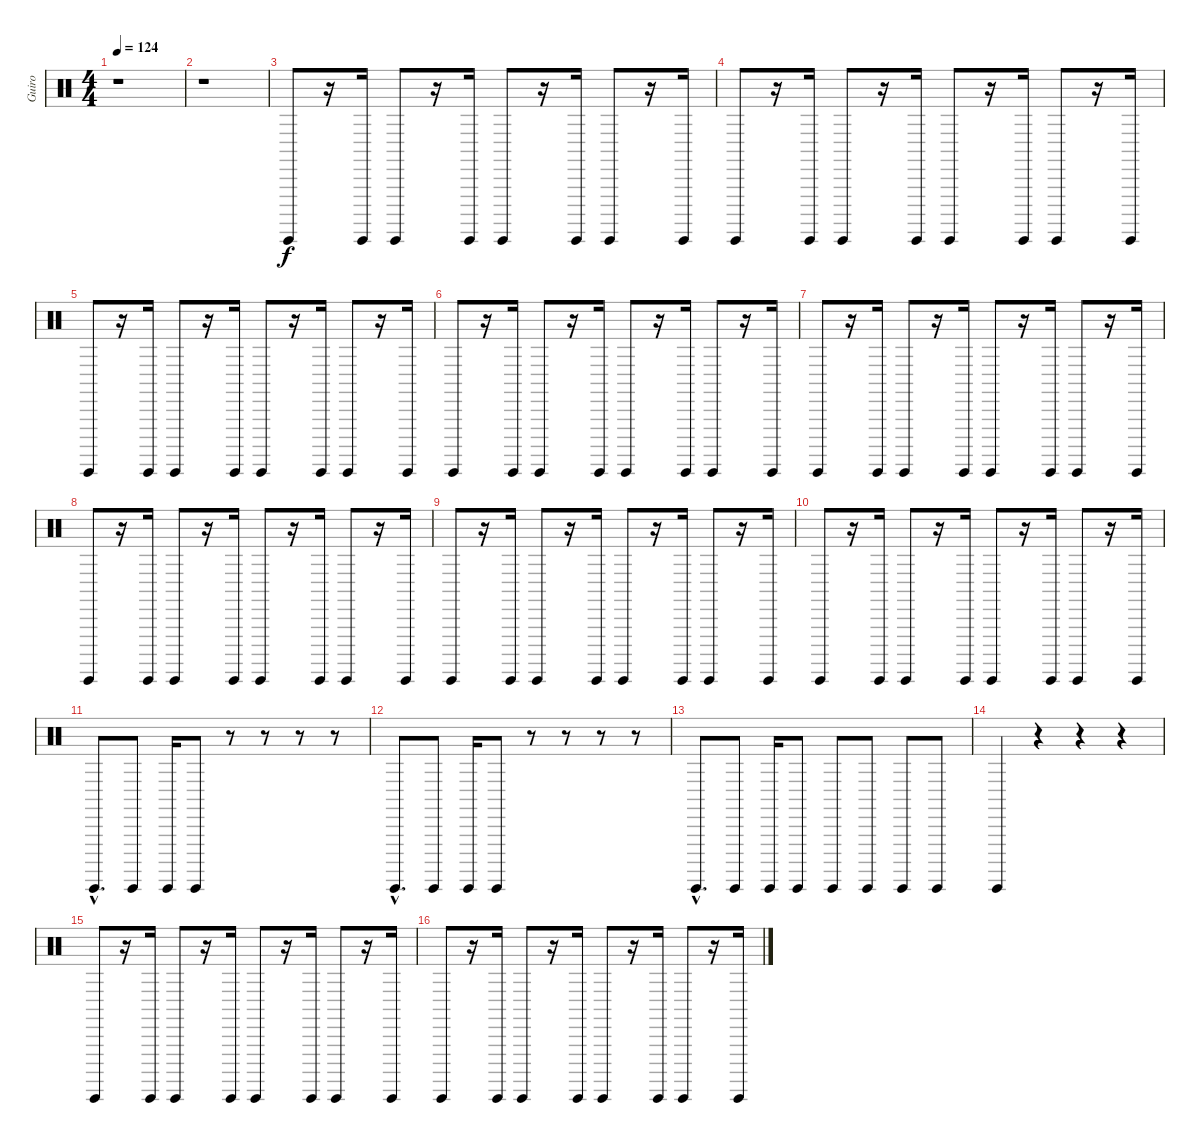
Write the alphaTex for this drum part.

\track ("Guiro" "Guiro") {instrument percussion}
\staff {score}
\articulation defaults
\ts (4 4)
\tempo 124
\clef neutral
\ks c
r.1{dy f} |
r.1 |
"Guiro (hit)".8 r.16 "Guiro (hit)".16 "Guiro (hit)".8 r.16 "Guiro (hit)".16 "Guiro (hit)".8 r.16 "Guiro (hit)".16 "Guiro (hit)".8 r.16 "Guiro (hit)".16 |
"Guiro (hit)".8 r.16 "Guiro (hit)".16 "Guiro (hit)".8 r.16 "Guiro (hit)".16 "Guiro (hit)".8 r.16 "Guiro (hit)".16 "Guiro (hit)".8 r.16 "Guiro (hit)".16 |
"Guiro (hit)".8 r.16 "Guiro (hit)".16 "Guiro (hit)".8 r.16 "Guiro (hit)".16 "Guiro (hit)".8 r.16 "Guiro (hit)".16 "Guiro (hit)".8 r.16 "Guiro (hit)".16 |
"Guiro (hit)".8 r.16 "Guiro (hit)".16 "Guiro (hit)".8 r.16 "Guiro (hit)".16 "Guiro (hit)".8 r.16 "Guiro (hit)".16 "Guiro (hit)".8 r.16 "Guiro (hit)".16 |
"Guiro (hit)".8 r.16 "Guiro (hit)".16 "Guiro (hit)".8 r.16 "Guiro (hit)".16 "Guiro (hit)".8 r.16 "Guiro (hit)".16 "Guiro (hit)".8 r.16 "Guiro (hit)".16 |
"Guiro (hit)".8 r.16 "Guiro (hit)".16 "Guiro (hit)".8 r.16 "Guiro (hit)".16 "Guiro (hit)".8 r.16 "Guiro (hit)".16 "Guiro (hit)".8 r.16 "Guiro (hit)".16 |
"Guiro (hit)".8 r.16 "Guiro (hit)".16 "Guiro (hit)".8 r.16 "Guiro (hit)".16 "Guiro (hit)".8 r.16 "Guiro (hit)".16 "Guiro (hit)".8 r.16 "Guiro (hit)".16 |
"Guiro (hit)".8 r.16 "Guiro (hit)".16 "Guiro (hit)".8 r.16 "Guiro (hit)".16 "Guiro (hit)".8 r.16 "Guiro (hit)".16 "Guiro (hit)".8 r.16 "Guiro (hit)".16 |
"Guiro (hit)"{hac}.8{d} "Guiro (hit)".8 "Guiro (hit)".16 "Guiro (hit)".8 r.8 r.8 r.8 r.8 |
"Guiro (hit)"{hac}.8{d} "Guiro (hit)".8 "Guiro (hit)".16 "Guiro (hit)".8 r.8 r.8 r.8 r.8 |
"Guiro (hit)"{hac}.8{d} "Guiro (hit)".8 "Guiro (hit)".16 "Guiro (hit)".8 "Guiro (hit)".8 "Guiro (hit)".8 "Guiro (hit)".8 "Guiro (hit)".8 |
"Guiro (hit)".4 r.4 r.4 r.4 |
"Guiro (hit)".8 r.16 "Guiro (hit)".16 "Guiro (hit)".8 r.16 "Guiro (hit)".16 "Guiro (hit)".8 r.16 "Guiro (hit)".16 "Guiro (hit)".8 r.16 "Guiro (hit)".16 |
"Guiro (hit)".8 r.16 "Guiro (hit)".16 "Guiro (hit)".8 r.16 "Guiro (hit)".16 "Guiro (hit)".8 r.16 "Guiro (hit)".16 "Guiro (hit)".8 r.16 "Guiro (hit)".16
